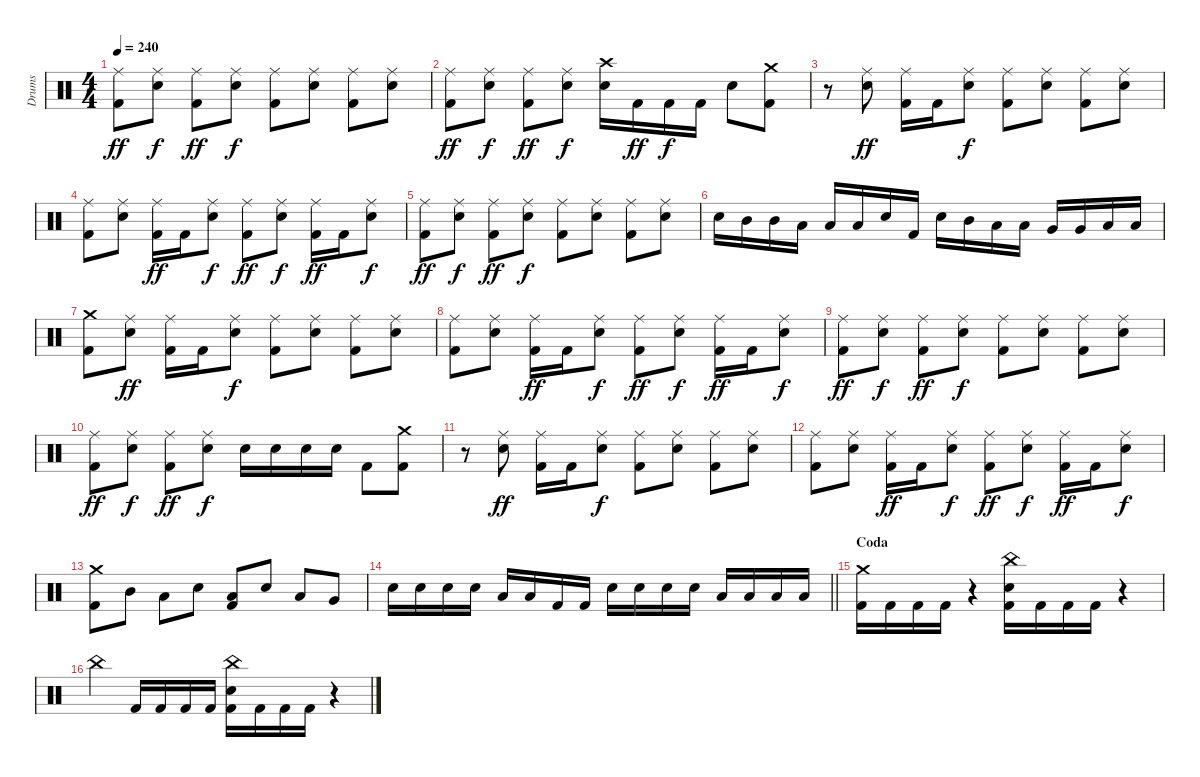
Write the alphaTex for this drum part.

\track ("Drums" "Drums") {instrument percussion}
\staff {score}
\articulation defaults
\ts (4 4)
\tempo 240
\clef neutral
\ks c
("Ride (middle)" "Kick (hit) 2").8{dy ff} ("Ride (middle)" "Electric Snare (hit)").8{dy f} ("Ride (middle)" "Kick (hit) 2").8{dy ff} ("Ride (middle)" "Electric Snare (hit)").8{dy f} ("Ride (middle)" "Kick (hit) 2").8 ("Ride (middle)" "Electric Snare (hit)").8 ("Ride (middle)" "Kick (hit) 2").8 ("Ride (middle)" "Electric Snare (hit)").8 |
("Ride (middle)" "Kick (hit) 2").8{dy ff} ("Ride (middle)" "Electric Snare (hit)").8{dy f} ("Ride (middle)" "Kick (hit) 2").8{dy ff} ("Ride (middle)" "Electric Snare (hit)").8{dy f} ("Crash high (hit)" "Electric Snare (hit)").16 "Kick (hit) 2".16{dy ff} "Kick (hit) 2".16{dy f} "Kick (hit) 2".16 "Electric Snare (hit)".8 ("Crash medium (hit)" "Kick (hit) 2").8 |
r.8 ("Ride (middle)" "Electric Snare (hit)").8{dy ff} ("Ride (middle)" "Kick (hit) 2").16 "Kick (hit) 2".16 ("Ride (middle)" "Electric Snare (hit)").8{dy f} ("Ride (middle)" "Kick (hit) 2").8 ("Ride (middle)" "Electric Snare (hit)").8 ("Ride (middle)" "Kick (hit) 2").8 ("Ride (middle)" "Electric Snare (hit)").8 |
("Ride (middle)" "Kick (hit) 2").8 ("Ride (middle)" "Electric Snare (hit)").8 ("Ride (middle)" "Kick (hit) 2").16{dy ff} "Kick (hit) 2".16 ("Ride (middle)" "Electric Snare (hit)").8{dy f} ("Ride (middle)" "Kick (hit) 2").8{dy ff} ("Ride (middle)" "Electric Snare (hit)").8{dy f} ("Ride (middle)" "Kick (hit) 2").16{dy ff} "Kick (hit) 2".16 ("Ride (middle)" "Electric Snare (hit)").8{dy f} |
("Ride (middle)" "Kick (hit) 2").8{dy ff} ("Ride (middle)" "Electric Snare (hit)").8{dy f} ("Ride (middle)" "Kick (hit) 2").8{dy ff} ("Ride (middle)" "Electric Snare (hit)").8{dy f} ("Ride (middle)" "Kick (hit) 2").8 ("Ride (middle)" "Electric Snare (hit)").8 ("Ride (middle)" "Kick (hit) 2").8 ("Ride (middle)" "Electric Snare (hit)").8 |
"Electric Snare (hit)".16 "Mid Tom (hit)".16 "Mid Tom (hit)".16 "Low Tom (hit)".16 "Low Tom (hit)".16 "Low Tom (hit)".16 "Electric Snare (hit)".16 "Kick (hit) 2".16 "Electric Snare (hit)".16 "Mid Tom (hit)".16 "Low Tom (hit)".16 "Low Tom (hit)".16 "Very Low Tom (hit)".16 "Very Low Tom (hit)".16 "Low Tom (hit)".16 "Low Tom (hit)".16 |
("Crash medium (hit)" "Kick (hit) 2").8 ("Ride (middle)" "Electric Snare (hit)").8{dy ff} ("Ride (middle)" "Kick (hit) 2").16 "Kick (hit) 2".16 ("Ride (middle)" "Electric Snare (hit)").8{dy f} ("Ride (middle)" "Kick (hit) 2").8 ("Ride (middle)" "Electric Snare (hit)").8 ("Ride (middle)" "Kick (hit) 2").8 ("Ride (middle)" "Electric Snare (hit)").8 |
("Ride (middle)" "Kick (hit) 2").8 ("Ride (middle)" "Electric Snare (hit)").8 ("Ride (middle)" "Kick (hit) 2").16{dy ff} "Kick (hit) 2".16 ("Ride (middle)" "Electric Snare (hit)").8{dy f} ("Ride (middle)" "Kick (hit) 2").8{dy ff} ("Ride (middle)" "Electric Snare (hit)").8{dy f} ("Ride (middle)" "Kick (hit) 2").16{dy ff} "Kick (hit) 2".16 ("Ride (middle)" "Electric Snare (hit)").8{dy f} |
("Ride (middle)" "Kick (hit) 2").8{dy ff} ("Ride (middle)" "Electric Snare (hit)").8{dy f} ("Ride (middle)" "Kick (hit) 2").8{dy ff} ("Ride (middle)" "Electric Snare (hit)").8{dy f} ("Ride (middle)" "Kick (hit) 2").8 ("Ride (middle)" "Electric Snare (hit)").8 ("Ride (middle)" "Kick (hit) 2").8 ("Ride (middle)" "Electric Snare (hit)").8 |
("Ride (middle)" "Kick (hit) 2").8{dy ff} ("Ride (middle)" "Electric Snare (hit)").8{dy f} ("Ride (middle)" "Kick (hit) 2").8{dy ff} ("Ride (middle)" "Electric Snare (hit)").8{dy f} "Electric Snare (hit)".16 "Electric Snare (hit)".16 "Electric Snare (hit)".16 "Electric Snare (hit)".16 "Kick (hit) 2".8 ("Crash medium (hit)" "Kick (hit) 2").8 |
r.8 ("Ride (middle)" "Electric Snare (hit)").8{dy ff} ("Ride (middle)" "Kick (hit) 2").16 "Kick (hit) 2".16 ("Ride (middle)" "Electric Snare (hit)").8{dy f} ("Ride (middle)" "Kick (hit) 2").8 ("Ride (middle)" "Electric Snare (hit)").8 ("Ride (middle)" "Kick (hit) 2").8 ("Ride (middle)" "Electric Snare (hit)").8 |
("Ride (middle)" "Kick (hit) 2").8 ("Ride (middle)" "Electric Snare (hit)").8 ("Ride (middle)" "Kick (hit) 2").16{dy ff} "Kick (hit) 2".16 ("Ride (middle)" "Electric Snare (hit)").8{dy f} ("Ride (middle)" "Kick (hit) 2").8{dy ff} ("Ride (middle)" "Electric Snare (hit)").8{dy f} ("Ride (middle)" "Kick (hit) 2").16{dy ff} "Kick (hit) 2".16 ("Ride (middle)" "Electric Snare (hit)").8{dy f} |
("Crash medium (hit)" "Kick (hit) 2").8 "Mid Tom (hit)".8 "Low Tom (hit)".8 "Electric Snare (hit)".8 ("Low Tom (hit)" "Kick (hit) 2").8 "Electric Snare (hit)".8 "Low Tom (hit)".8 "Very Low Tom (hit)".8 |
\barLineRight lightlight "Electric Snare (hit)".16 "Electric Snare (hit)".16 "Electric Snare (hit)".16 "Electric Snare (hit)".16 "Low Tom (hit)".16 "Low Tom (hit)".16 "Kick (hit) 2".16 "Kick (hit) 2".16 "Electric Snare (hit)".16 "Electric Snare (hit)".16 "Electric Snare (hit)".16 "Electric Snare (hit)".16 "Low Tom (hit)".16 "Low Tom (hit)".16 "Low Tom (hit)".16 "Low Tom (hit)".16
|
\section ("" "Coda")
("Crash medium (hit)" "Kick (hit) 2").16 "Kick (hit) 2".16 "Kick (hit) 2".16 "Kick (hit) 2".16 r.4 ("China (hit)" "Electric Snare (hit)" "Kick (hit) 2").16 "Kick (hit) 2".16 "Kick (hit) 2".16 "Kick (hit) 2".16 r.4 |
"China (hit)".4 "Kick (hit) 2".16 "Kick (hit) 2".16 "Kick (hit) 2".16 "Kick (hit) 2".16 ("China (hit)" "Electric Snare (hit)" "Kick (hit) 2").16 "Kick (hit) 2".16 "Kick (hit) 2".16 "Kick (hit) 2".16 r.4
